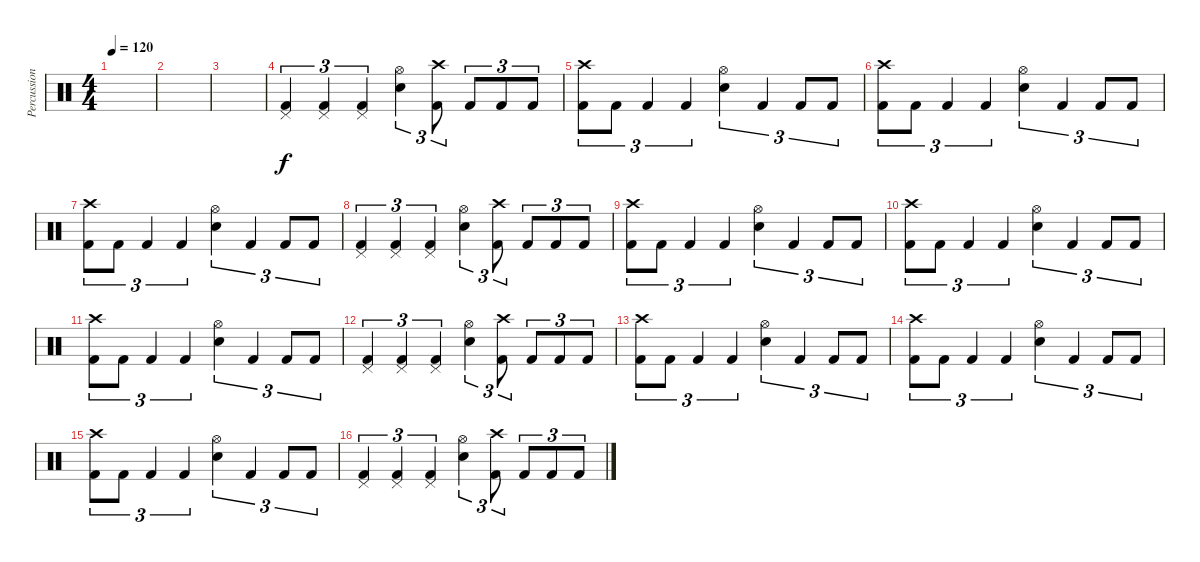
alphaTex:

\track ("Percussion" "Percussion") {instrument percussion}
\staff {score}
\articulation defaults
\ts (4 4)
\tempo 120
\clef neutral
\ks c
|
|
|
("Kick (hit) 2" "Pedal Hi-Hat (hit)").4{tu (3 2)} ("Kick (hit) 2" "Pedal Hi-Hat (hit)").4{tu (3 2)} ("Kick (hit) 2" "Pedal Hi-Hat (hit)").4{tu (3 2)} ("Snare (hit) 2" "Hi-Hat (open)").4{tu (3 2)} ("Kick (hit) 2" "Crash high (hit)").8{tu (3 2)} "Kick (hit) 2".8{tu (3 2)} "Kick (hit) 2".8{tu (3 2)} "Kick (hit) 2".8{tu (3 2)} |
("Kick (hit) 2" "Crash high (hit)").8{tu (3 2)} "Kick (hit) 2".8{tu (3 2)} "Kick (hit) 2".4{tu (3 2)} "Kick (hit) 2".4{tu (3 2)} ("Snare (hit) 2" "Hi-Hat (open)").4{tu (3 2)} "Kick (hit) 2".4{tu (3 2)} "Kick (hit) 2".8{tu (3 2)} "Kick (hit) 2".8{tu (3 2)} |
("Kick (hit) 2" "Crash high (hit)").8{tu (3 2)} "Kick (hit) 2".8{tu (3 2)} "Kick (hit) 2".4{tu (3 2)} "Kick (hit) 2".4{tu (3 2)} ("Snare (hit) 2" "Hi-Hat (open)").4{tu (3 2)} "Kick (hit) 2".4{tu (3 2)} "Kick (hit) 2".8{tu (3 2)} "Kick (hit) 2".8{tu (3 2)} |
("Kick (hit) 2" "Crash high (hit)").8{tu (3 2)} "Kick (hit) 2".8{tu (3 2)} "Kick (hit) 2".4{tu (3 2)} "Kick (hit) 2".4{tu (3 2)} ("Snare (hit) 2" "Hi-Hat (open)").4{tu (3 2)} "Kick (hit) 2".4{tu (3 2)} "Kick (hit) 2".8{tu (3 2)} "Kick (hit) 2".8{tu (3 2)} |
("Kick (hit) 2" "Pedal Hi-Hat (hit)").4{tu (3 2)} ("Kick (hit) 2" "Pedal Hi-Hat (hit)").4{tu (3 2)} ("Kick (hit) 2" "Pedal Hi-Hat (hit)").4{tu (3 2)} ("Snare (hit) 2" "Hi-Hat (open)").4{tu (3 2)} ("Kick (hit) 2" "Crash high (hit)").8{tu (3 2)} "Kick (hit) 2".8{tu (3 2)} "Kick (hit) 2".8{tu (3 2)} "Kick (hit) 2".8{tu (3 2)} |
("Kick (hit) 2" "Crash high (hit)").8{tu (3 2)} "Kick (hit) 2".8{tu (3 2)} "Kick (hit) 2".4{tu (3 2)} "Kick (hit) 2".4{tu (3 2)} ("Snare (hit) 2" "Hi-Hat (open)").4{tu (3 2)} "Kick (hit) 2".4{tu (3 2)} "Kick (hit) 2".8{tu (3 2)} "Kick (hit) 2".8{tu (3 2)} |
("Kick (hit) 2" "Crash high (hit)").8{tu (3 2)} "Kick (hit) 2".8{tu (3 2)} "Kick (hit) 2".4{tu (3 2)} "Kick (hit) 2".4{tu (3 2)} ("Snare (hit) 2" "Hi-Hat (open)").4{tu (3 2)} "Kick (hit) 2".4{tu (3 2)} "Kick (hit) 2".8{tu (3 2)} "Kick (hit) 2".8{tu (3 2)} |
("Kick (hit) 2" "Crash high (hit)").8{tu (3 2)} "Kick (hit) 2".8{tu (3 2)} "Kick (hit) 2".4{tu (3 2)} "Kick (hit) 2".4{tu (3 2)} ("Snare (hit) 2" "Hi-Hat (open)").4{tu (3 2)} "Kick (hit) 2".4{tu (3 2)} "Kick (hit) 2".8{tu (3 2)} "Kick (hit) 2".8{tu (3 2)} |
("Kick (hit) 2" "Pedal Hi-Hat (hit)").4{tu (3 2)} ("Kick (hit) 2" "Pedal Hi-Hat (hit)").4{tu (3 2)} ("Kick (hit) 2" "Pedal Hi-Hat (hit)").4{tu (3 2)} ("Snare (hit) 2" "Hi-Hat (open)").4{tu (3 2)} ("Kick (hit) 2" "Crash high (hit)").8{tu (3 2)} "Kick (hit) 2".8{tu (3 2)} "Kick (hit) 2".8{tu (3 2)} "Kick (hit) 2".8{tu (3 2)} |
("Kick (hit) 2" "Crash high (hit)").8{tu (3 2)} "Kick (hit) 2".8{tu (3 2)} "Kick (hit) 2".4{tu (3 2)} "Kick (hit) 2".4{tu (3 2)} ("Snare (hit) 2" "Hi-Hat (open)").4{tu (3 2)} "Kick (hit) 2".4{tu (3 2)} "Kick (hit) 2".8{tu (3 2)} "Kick (hit) 2".8{tu (3 2)} |
("Kick (hit) 2" "Crash high (hit)").8{tu (3 2)} "Kick (hit) 2".8{tu (3 2)} "Kick (hit) 2".4{tu (3 2)} "Kick (hit) 2".4{tu (3 2)} ("Snare (hit) 2" "Hi-Hat (open)").4{tu (3 2)} "Kick (hit) 2".4{tu (3 2)} "Kick (hit) 2".8{tu (3 2)} "Kick (hit) 2".8{tu (3 2)} |
("Kick (hit) 2" "Crash high (hit)").8{tu (3 2)} "Kick (hit) 2".8{tu (3 2)} "Kick (hit) 2".4{tu (3 2)} "Kick (hit) 2".4{tu (3 2)} ("Snare (hit) 2" "Hi-Hat (open)").4{tu (3 2)} "Kick (hit) 2".4{tu (3 2)} "Kick (hit) 2".8{tu (3 2)} "Kick (hit) 2".8{tu (3 2)} |
("Kick (hit) 2" "Pedal Hi-Hat (hit)").4{tu (3 2)} ("Kick (hit) 2" "Pedal Hi-Hat (hit)").4{tu (3 2)} ("Kick (hit) 2" "Pedal Hi-Hat (hit)").4{tu (3 2)} ("Snare (hit) 2" "Hi-Hat (open)").4{tu (3 2)} ("Kick (hit) 2" "Crash high (hit)").8{tu (3 2)} "Kick (hit) 2".8{tu (3 2)} "Kick (hit) 2".8{tu (3 2)} "Kick (hit) 2".8{tu (3 2)}
